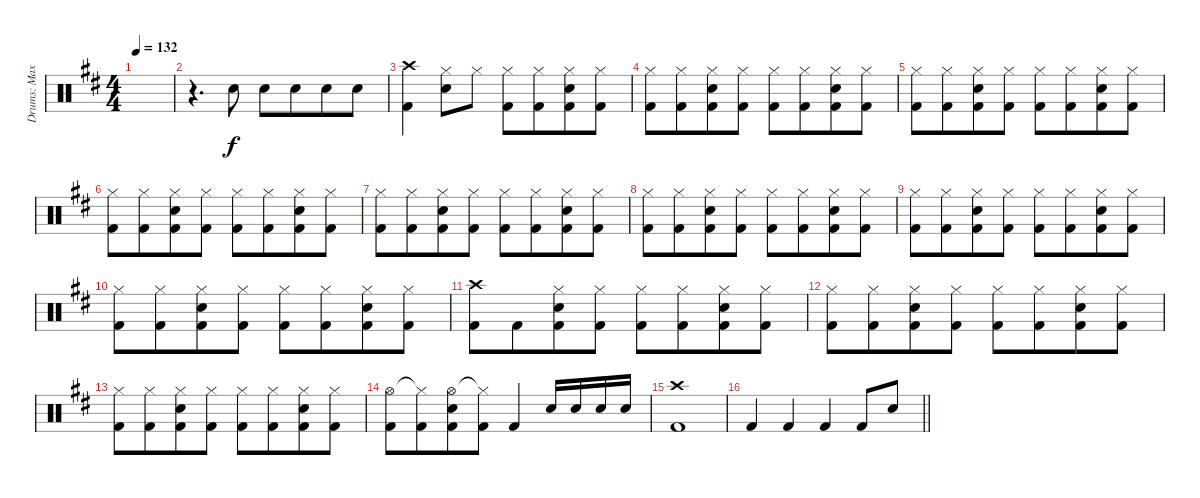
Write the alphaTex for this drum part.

\track ("Drums: Max" "Drums: Max") {instrument percussion}
\staff {score}
\articulation defaults
\ts (4 4)
\tempo 132
\clef neutral
\ks d
|
r.4{d} "Electric Snare (hit)".8 "Electric Snare (hit)".8 "Electric Snare (hit)".8{beam merge} "Electric Snare (hit)".8 "Electric Snare (hit)".8 |
("Crash high (hit)" "Kick (hit) 2").4 ("Hi-Hat (closed)" "Electric Snare (hit)").8 "Hi-Hat (closed)".8 ("Hi-Hat (closed)" "Kick (hit) 2").8 ("Hi-Hat (closed)" "Kick (hit) 2").8{beam merge} ("Hi-Hat (closed)" "Electric Snare (hit)" "Kick (hit) 2").8 ("Hi-Hat (closed)" "Kick (hit) 2").8 |
("Hi-Hat (closed)" "Kick (hit) 2").8 ("Hi-Hat (closed)" "Kick (hit) 2").8{beam merge} ("Hi-Hat (closed)" "Electric Snare (hit)" "Kick (hit) 2").8 ("Hi-Hat (closed)" "Kick (hit) 2").8 ("Hi-Hat (closed)" "Kick (hit) 2").8 ("Hi-Hat (closed)" "Kick (hit) 2").8{beam merge} ("Hi-Hat (closed)" "Electric Snare (hit)" "Kick (hit) 2").8 ("Hi-Hat (closed)" "Kick (hit) 2").8 |
("Hi-Hat (closed)" "Kick (hit) 2").8 ("Hi-Hat (closed)" "Kick (hit) 2").8{beam merge} ("Hi-Hat (closed)" "Electric Snare (hit)" "Kick (hit) 2").8 ("Hi-Hat (closed)" "Kick (hit) 2").8 ("Hi-Hat (closed)" "Kick (hit) 2").8 ("Hi-Hat (closed)" "Kick (hit) 2").8{beam merge} ("Hi-Hat (closed)" "Electric Snare (hit)" "Kick (hit) 2").8 ("Hi-Hat (closed)" "Kick (hit) 2").8 |
("Hi-Hat (closed)" "Kick (hit) 2").8 ("Hi-Hat (closed)" "Kick (hit) 2").8{beam merge} ("Hi-Hat (closed)" "Electric Snare (hit)" "Kick (hit) 2").8 ("Hi-Hat (closed)" "Kick (hit) 2").8 ("Hi-Hat (closed)" "Kick (hit) 2").8 ("Hi-Hat (closed)" "Kick (hit) 2").8{beam merge} ("Hi-Hat (closed)" "Electric Snare (hit)" "Kick (hit) 2").8 ("Hi-Hat (closed)" "Kick (hit) 2").8 |
("Hi-Hat (closed)" "Kick (hit) 2").8 ("Hi-Hat (closed)" "Kick (hit) 2").8{beam merge} ("Hi-Hat (closed)" "Electric Snare (hit)" "Kick (hit) 2").8 ("Hi-Hat (closed)" "Kick (hit) 2").8 ("Hi-Hat (closed)" "Kick (hit) 2").8 ("Hi-Hat (closed)" "Kick (hit) 2").8{beam merge} ("Hi-Hat (closed)" "Electric Snare (hit)" "Kick (hit) 2").8 ("Hi-Hat (closed)" "Kick (hit) 2").8 |
("Hi-Hat (closed)" "Kick (hit) 2").8 ("Hi-Hat (closed)" "Kick (hit) 2").8{beam merge} ("Hi-Hat (closed)" "Electric Snare (hit)" "Kick (hit) 2").8 ("Hi-Hat (closed)" "Kick (hit) 2").8 ("Hi-Hat (closed)" "Kick (hit) 2").8 ("Hi-Hat (closed)" "Kick (hit) 2").8{beam merge} ("Hi-Hat (closed)" "Electric Snare (hit)" "Kick (hit) 2").8 ("Hi-Hat (closed)" "Kick (hit) 2").8 |
("Hi-Hat (closed)" "Kick (hit) 2").8 ("Hi-Hat (closed)" "Kick (hit) 2").8{beam merge} ("Hi-Hat (closed)" "Electric Snare (hit)" "Kick (hit) 2").8 ("Hi-Hat (closed)" "Kick (hit) 2").8 ("Hi-Hat (closed)" "Kick (hit) 2").8 ("Hi-Hat (closed)" "Kick (hit) 2").8{beam merge} ("Hi-Hat (closed)" "Electric Snare (hit)" "Kick (hit) 2").8 ("Hi-Hat (closed)" "Kick (hit) 2").8 |
("Hi-Hat (closed)" "Kick (hit) 2").8 ("Hi-Hat (closed)" "Kick (hit) 2").8{beam merge} ("Hi-Hat (closed)" "Electric Snare (hit)" "Kick (hit) 2").8 ("Hi-Hat (closed)" "Kick (hit) 2").8 ("Hi-Hat (closed)" "Kick (hit) 2").8 ("Hi-Hat (closed)" "Kick (hit) 2").8{beam merge} ("Hi-Hat (closed)" "Electric Snare (hit)" "Kick (hit) 2").8 ("Hi-Hat (closed)" "Kick (hit) 2").8 |
("Crash high (hit)" "Kick (hit) 2").8 "Kick (hit) 2".8{beam merge} ("Hi-Hat (closed)" "Electric Snare (hit)" "Kick (hit) 2").8 ("Hi-Hat (closed)" "Kick (hit) 2").8 ("Hi-Hat (closed)" "Kick (hit) 2").8 ("Hi-Hat (closed)" "Kick (hit) 2").8{beam merge} ("Hi-Hat (closed)" "Electric Snare (hit)" "Kick (hit) 2").8 ("Hi-Hat (closed)" "Kick (hit) 2").8 |
("Hi-Hat (closed)" "Kick (hit) 2").8 ("Hi-Hat (closed)" "Kick (hit) 2").8{beam merge} ("Hi-Hat (closed)" "Electric Snare (hit)" "Kick (hit) 2").8 ("Hi-Hat (closed)" "Kick (hit) 2").8 ("Hi-Hat (closed)" "Kick (hit) 2").8 ("Hi-Hat (closed)" "Kick (hit) 2").8{beam merge} ("Hi-Hat (closed)" "Electric Snare (hit)" "Kick (hit) 2").8 ("Hi-Hat (closed)" "Kick (hit) 2").8 |
("Hi-Hat (closed)" "Kick (hit) 2").8 ("Hi-Hat (closed)" "Kick (hit) 2").8{beam merge} ("Hi-Hat (closed)" "Electric Snare (hit)" "Kick (hit) 2").8 ("Hi-Hat (closed)" "Kick (hit) 2").8 ("Hi-Hat (closed)" "Kick (hit) 2").8 ("Hi-Hat (closed)" "Kick (hit) 2").8{beam merge} ("Hi-Hat (closed)" "Electric Snare (hit)" "Kick (hit) 2").8 ("Hi-Hat (closed)" "Kick (hit) 2").8 |
("Hi-Hat (open)" "Kick (hit) 2").8 ("Hi-Hat (closed)"{t} "Kick (hit) 2").8{beam merge} ("Hi-Hat (open)" "Electric Snare (hit)" "Kick (hit) 2").8 ("Hi-Hat (closed)"{t} "Kick (hit) 2").8 "Kick (hit) 2".4{beam merge} "Electric Snare (hit)".16{beam merge} "Electric Snare (hit)".16{beam merge} "Electric Snare (hit)".16{beam merge} "Electric Snare (hit)".16 |
("Crash high (hit)" "Kick (hit) 2").1 |
\barLineRight lightlight "Kick (hit) 2".4 "Kick (hit) 2".4 "Kick (hit) 2".4 "Kick (hit) 2".8 "Electric Snare (hit)".8
